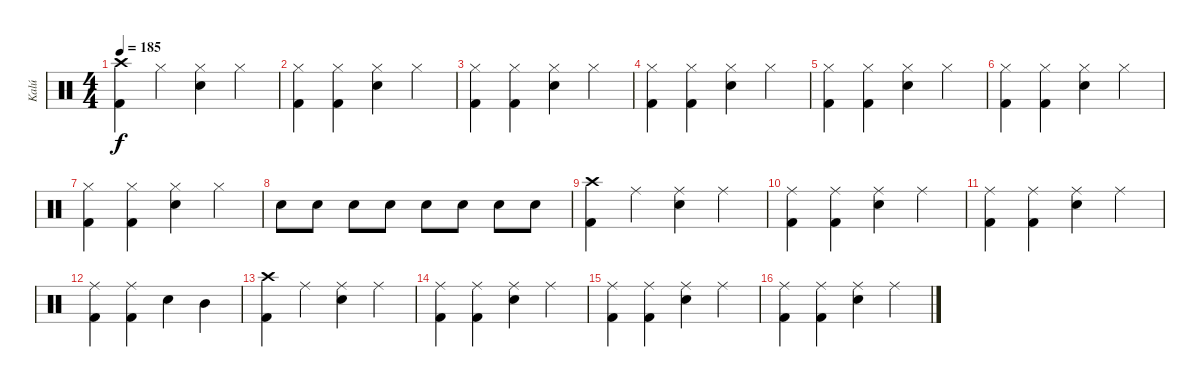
\track ("Kalú" "Kalú") {instrument percussion}
\staff {score}
\articulation defaults
\ts (4 4)
\tempo 185
\clef neutral
\ks c
("Crash high (hit)" "Kick (hit) 2").4{dy f} "Hi-Hat (closed)".4 ("Hi-Hat (closed)" "Snare (hit) 2").4 "Hi-Hat (closed)".4 |
("Hi-Hat (closed)" "Kick (hit) 2").4 ("Hi-Hat (closed)" "Kick (hit) 2").4 ("Hi-Hat (closed)" "Snare (hit) 2").4 "Hi-Hat (closed)".4 |
("Hi-Hat (closed)" "Kick (hit) 2").4 ("Hi-Hat (closed)" "Kick (hit) 2").4 ("Hi-Hat (closed)" "Snare (hit) 2").4 "Hi-Hat (closed)".4 |
("Hi-Hat (closed)" "Kick (hit) 2").4 ("Hi-Hat (closed)" "Kick (hit) 2").4 ("Hi-Hat (closed)" "Snare (hit) 2").4 "Hi-Hat (closed)".4 |
("Hi-Hat (closed)" "Kick (hit) 2").4 ("Hi-Hat (closed)" "Kick (hit) 2").4 ("Hi-Hat (closed)" "Snare (hit) 2").4 "Hi-Hat (closed)".4 |
("Hi-Hat (closed)" "Kick (hit) 2").4 ("Hi-Hat (closed)" "Kick (hit) 2").4 ("Hi-Hat (closed)" "Snare (hit) 2").4 "Hi-Hat (closed)".4 |
("Hi-Hat (closed)" "Kick (hit) 2").4 ("Hi-Hat (closed)" "Kick (hit) 2").4 ("Hi-Hat (closed)" "Snare (hit) 2").4 "Hi-Hat (closed)".4 |
"Snare (hit) 2".8{volume 6} "Snare (hit) 2".8{volume 7} "Snare (hit) 2".8{volume 8} "Snare (hit) 2".8{volume 9} "Snare (hit) 2".8{volume 10} "Snare (hit) 2".8{volume 11} "Snare (hit) 2".8{volume 12} "Snare (hit) 2".8{volume 13} |
("Crash high (hit)" "Kick (hit) 2").4 "Ride (middle)".4 ("Ride (middle)" "Snare (hit) 2").4 "Ride (middle)".4 |
("Ride (middle)" "Kick (hit) 2").4 ("Ride (middle)" "Kick (hit) 2").4 ("Ride (middle)" "Snare (hit) 2").4 "Ride (middle)".4 |
("Ride (middle)" "Kick (hit) 2").4 ("Ride (middle)" "Kick (hit) 2").4 ("Ride (middle)" "Snare (hit) 2").4 "Ride (middle)".4 |
("Ride (middle)" "Kick (hit) 2").4 ("Ride (middle)" "Kick (hit) 2").4 "Snare (hit) 2".4 "Mid Tom (hit)".4 |
("Crash high (hit)" "Kick (hit) 2").4 "Ride (middle)".4 ("Ride (middle)" "Snare (hit) 2").4 "Ride (middle)".4 |
("Ride (middle)" "Kick (hit) 2").4 ("Ride (middle)" "Kick (hit) 2").4 ("Ride (middle)" "Snare (hit) 2").4 "Ride (middle)".4 |
("Ride (middle)" "Kick (hit) 2").4 ("Ride (middle)" "Kick (hit) 2").4 ("Ride (middle)" "Snare (hit) 2").4 "Ride (middle)".4 |
("Ride (middle)" "Kick (hit) 2").4 ("Ride (middle)" "Kick (hit) 2").4 ("Ride (middle)" "Snare (hit) 2").4 "Ride (middle)".4
